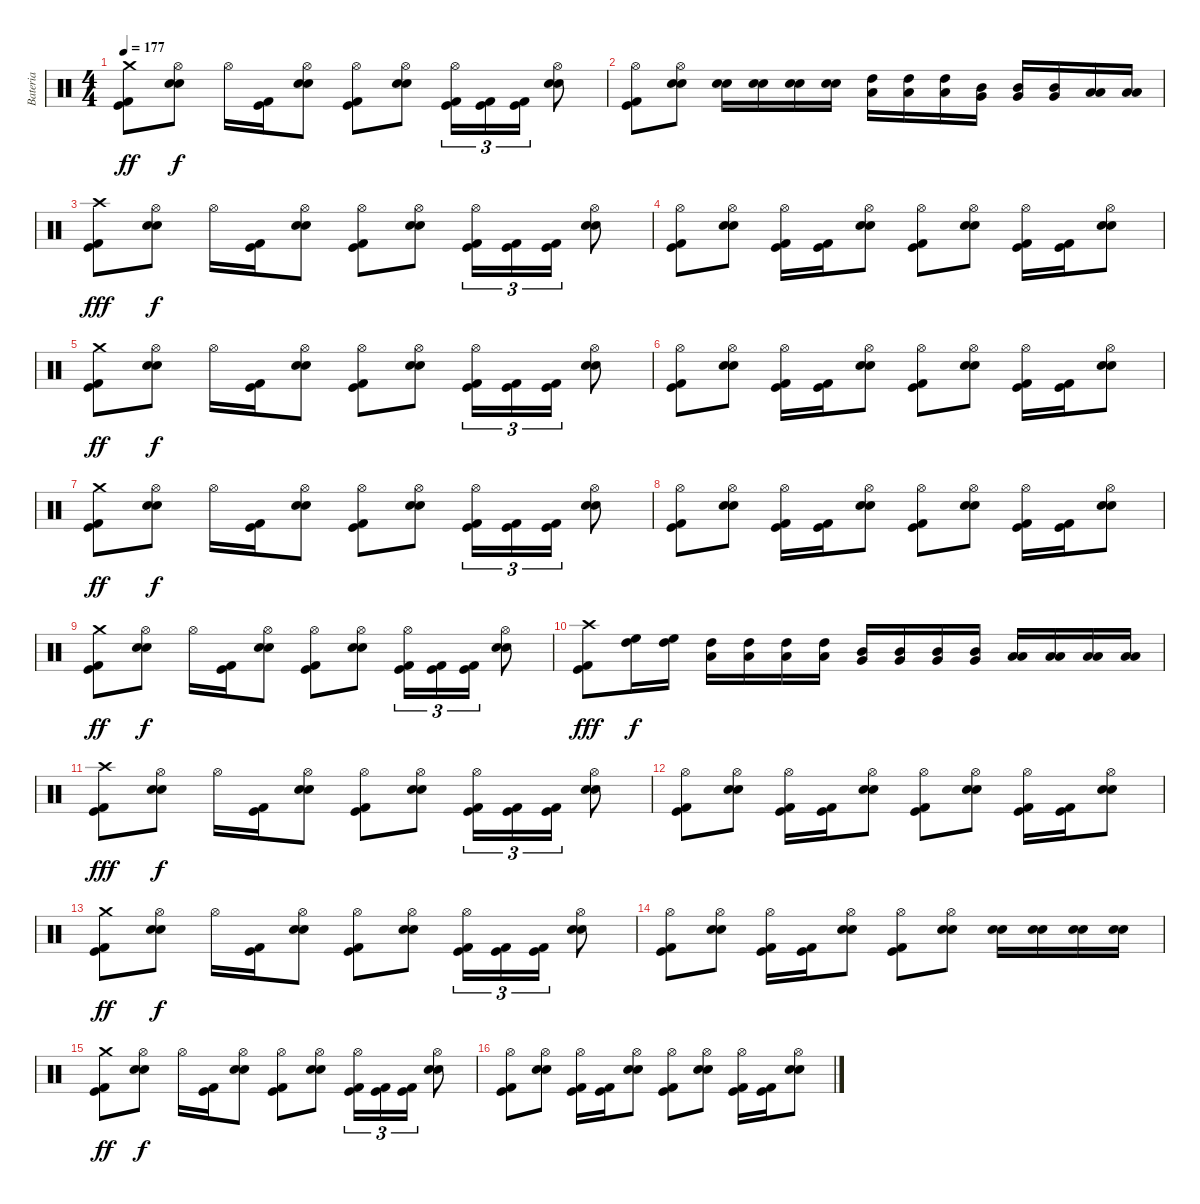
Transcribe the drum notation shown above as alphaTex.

\track ("Bateria" "Bateria") {instrument percussion}
\staff {score}
\articulation defaults
\ts (4 4)
\tempo 177
\clef neutral
\ks c
("Crash medium (hit)" "Kick (hit) 2" "Kick (hit)").8{dy ff} ("Hi-Hat (open)" "Electric Snare (hit)" "Snare (hit) 2").8{dy f} "Hi-Hat (open)".16 ("Kick (hit) 2" "Kick (hit)").16 ("Hi-Hat (open)" "Electric Snare (hit)" "Snare (hit) 2").8 ("Hi-Hat (open)" "Kick (hit) 2" "Kick (hit)").8 ("Hi-Hat (open)" "Electric Snare (hit)" "Snare (hit) 2").8 ("Hi-Hat (open)" "Kick (hit) 2" "Kick (hit)").16{tu (3 2)} ("Kick (hit) 2" "Kick (hit)").16{tu (3 2)} ("Kick (hit) 2" "Kick (hit)").16{tu (3 2)} ("Hi-Hat (open)" "Electric Snare (hit)" "Snare (hit) 2").8 |
("Hi-Hat (open)" "Kick (hit) 2" "Kick (hit)").8 ("Hi-Hat (open)" "Electric Snare (hit)" "Snare (hit) 2").8 ("Electric Snare (hit)" "Snare (hit) 2").16 ("Electric Snare (hit)" "Snare (hit) 2").16 ("Electric Snare (hit)" "Snare (hit) 2").16 ("Electric Snare (hit)" "Snare (hit) 2").16 ("High Tom (hit)" "Low Tom (hit)").16 ("High Tom (hit)" "Low Tom (hit)").16 ("High Tom (hit)" "Low Tom (hit)").16 ("Mid Tom (hit)" "Very Low Tom (hit)").16 ("Mid Tom (hit)" "Very Low Tom (hit)").16 ("Mid Tom (hit)" "Very Low Tom (hit)").16 ("Low Tom (hit)" "Low Floor Tom (hit)").16 ("Low Tom (hit)" "Low Floor Tom (hit)").16 |
("Crash high (hit)" "Kick (hit) 2" "Kick (hit)").8{dy fff} ("Hi-Hat (open)" "Electric Snare (hit)" "Snare (hit) 2").8{dy f} "Hi-Hat (open)".16 ("Kick (hit) 2" "Kick (hit)").16 ("Hi-Hat (open)" "Electric Snare (hit)" "Snare (hit) 2").8 ("Hi-Hat (open)" "Kick (hit) 2" "Kick (hit)").8 ("Hi-Hat (open)" "Electric Snare (hit)" "Snare (hit) 2").8 ("Hi-Hat (open)" "Kick (hit) 2" "Kick (hit)").16{tu (3 2)} ("Kick (hit) 2" "Kick (hit)").16{tu (3 2)} ("Kick (hit) 2" "Kick (hit)").16{tu (3 2)} ("Hi-Hat (open)" "Electric Snare (hit)" "Snare (hit) 2").8 |
("Hi-Hat (open)" "Kick (hit) 2" "Kick (hit)").8 ("Hi-Hat (open)" "Electric Snare (hit)" "Snare (hit) 2").8 ("Hi-Hat (open)" "Kick (hit) 2" "Kick (hit)").16 ("Kick (hit) 2" "Kick (hit)").16 ("Hi-Hat (open)" "Electric Snare (hit)" "Snare (hit) 2").8 ("Hi-Hat (open)" "Kick (hit) 2" "Kick (hit)").8 ("Hi-Hat (open)" "Electric Snare (hit)" "Snare (hit) 2").8 ("Hi-Hat (open)" "Kick (hit) 2" "Kick (hit)").16 ("Kick (hit) 2" "Kick (hit)").16 ("Hi-Hat (open)" "Electric Snare (hit)" "Snare (hit) 2").8 |
("Crash medium (hit)" "Kick (hit) 2" "Kick (hit)").8{dy ff} ("Hi-Hat (open)" "Electric Snare (hit)" "Snare (hit) 2").8{dy f} "Hi-Hat (open)".16 ("Kick (hit) 2" "Kick (hit)").16 ("Hi-Hat (open)" "Electric Snare (hit)" "Snare (hit) 2").8 ("Hi-Hat (open)" "Kick (hit) 2" "Kick (hit)").8 ("Hi-Hat (open)" "Electric Snare (hit)" "Snare (hit) 2").8 ("Hi-Hat (open)" "Kick (hit) 2" "Kick (hit)").16{tu (3 2)} ("Kick (hit) 2" "Kick (hit)").16{tu (3 2)} ("Kick (hit) 2" "Kick (hit)").16{tu (3 2)} ("Hi-Hat (open)" "Electric Snare (hit)" "Snare (hit) 2").8 |
("Hi-Hat (open)" "Kick (hit) 2" "Kick (hit)").8 ("Hi-Hat (open)" "Electric Snare (hit)" "Snare (hit) 2").8 ("Hi-Hat (open)" "Kick (hit) 2" "Kick (hit)").16 ("Kick (hit) 2" "Kick (hit)").16 ("Hi-Hat (open)" "Electric Snare (hit)" "Snare (hit) 2").8 ("Hi-Hat (open)" "Kick (hit) 2" "Kick (hit)").8 ("Hi-Hat (open)" "Electric Snare (hit)" "Snare (hit) 2").8 ("Hi-Hat (open)" "Kick (hit) 2" "Kick (hit)").16 ("Kick (hit) 2" "Kick (hit)").16 ("Hi-Hat (open)" "Electric Snare (hit)" "Snare (hit) 2").8 |
("Crash medium (hit)" "Kick (hit) 2" "Kick (hit)").8{dy ff} ("Hi-Hat (open)" "Electric Snare (hit)" "Snare (hit) 2").8{dy f} "Hi-Hat (open)".16 ("Kick (hit) 2" "Kick (hit)").16 ("Hi-Hat (open)" "Electric Snare (hit)" "Snare (hit) 2").8 ("Hi-Hat (open)" "Kick (hit) 2" "Kick (hit)").8 ("Hi-Hat (open)" "Electric Snare (hit)" "Snare (hit) 2").8 ("Hi-Hat (open)" "Kick (hit) 2" "Kick (hit)").16{tu (3 2)} ("Kick (hit) 2" "Kick (hit)").16{tu (3 2)} ("Kick (hit) 2" "Kick (hit)").16{tu (3 2)} ("Hi-Hat (open)" "Electric Snare (hit)" "Snare (hit) 2").8 |
("Hi-Hat (open)" "Kick (hit) 2" "Kick (hit)").8 ("Hi-Hat (open)" "Electric Snare (hit)" "Snare (hit) 2").8 ("Hi-Hat (open)" "Kick (hit) 2" "Kick (hit)").16 ("Kick (hit) 2" "Kick (hit)").16 ("Hi-Hat (open)" "Electric Snare (hit)" "Snare (hit) 2").8 ("Hi-Hat (open)" "Kick (hit) 2" "Kick (hit)").8 ("Hi-Hat (open)" "Electric Snare (hit)" "Snare (hit) 2").8 ("Hi-Hat (open)" "Kick (hit) 2" "Kick (hit)").16 ("Kick (hit) 2" "Kick (hit)").16 ("Hi-Hat (open)" "Electric Snare (hit)" "Snare (hit) 2").8 |
("Crash medium (hit)" "Kick (hit) 2" "Kick (hit)").8{dy ff} ("Hi-Hat (open)" "Electric Snare (hit)" "Snare (hit) 2").8{dy f} "Hi-Hat (open)".16 ("Kick (hit) 2" "Kick (hit)").16 ("Hi-Hat (open)" "Electric Snare (hit)" "Snare (hit) 2").8 ("Hi-Hat (open)" "Kick (hit) 2" "Kick (hit)").8 ("Hi-Hat (open)" "Electric Snare (hit)" "Snare (hit) 2").8 ("Hi-Hat (open)" "Kick (hit) 2" "Kick (hit)").16{tu (3 2)} ("Kick (hit) 2" "Kick (hit)").16{tu (3 2)} ("Kick (hit) 2" "Kick (hit)").16{tu (3 2)} ("Hi-Hat (open)" "Electric Snare (hit)" "Snare (hit) 2").8 |
("Crash high (hit)" "Kick (hit) 2" "Kick (hit)").8{dy fff} ("High Floor Tom (hit)" "High Tom (hit)").16{dy f} ("High Floor Tom (hit)" "High Tom (hit)").16 ("High Tom (hit)" "Low Tom (hit)").16 ("High Tom (hit)" "Low Tom (hit)").16 ("High Tom (hit)" "Low Tom (hit)").16 ("High Tom (hit)" "Low Tom (hit)").16 ("Mid Tom (hit)" "Very Low Tom (hit)").16 ("Mid Tom (hit)" "Very Low Tom (hit)").16 ("Mid Tom (hit)" "Very Low Tom (hit)").16 ("Mid Tom (hit)" "Very Low Tom (hit)").16 ("Low Tom (hit)" "Low Floor Tom (hit)").16 ("Low Tom (hit)" "Low Floor Tom (hit)").16 ("Low Tom (hit)" "Low Floor Tom (hit)").16 ("Low Tom (hit)" "Low Floor Tom (hit)").16 |
("Crash high (hit)" "Kick (hit) 2" "Kick (hit)").8{dy fff} ("Hi-Hat (open)" "Electric Snare (hit)" "Snare (hit) 2").8{dy f} "Hi-Hat (open)".16 ("Kick (hit) 2" "Kick (hit)").16 ("Hi-Hat (open)" "Electric Snare (hit)" "Snare (hit) 2").8 ("Hi-Hat (open)" "Kick (hit) 2" "Kick (hit)").8 ("Hi-Hat (open)" "Electric Snare (hit)" "Snare (hit) 2").8 ("Hi-Hat (open)" "Kick (hit) 2" "Kick (hit)").16{tu (3 2)} ("Kick (hit) 2" "Kick (hit)").16{tu (3 2)} ("Kick (hit) 2" "Kick (hit)").16{tu (3 2)} ("Hi-Hat (open)" "Electric Snare (hit)" "Snare (hit) 2").8 |
("Hi-Hat (open)" "Kick (hit) 2" "Kick (hit)").8 ("Hi-Hat (open)" "Electric Snare (hit)" "Snare (hit) 2").8 ("Hi-Hat (open)" "Kick (hit) 2" "Kick (hit)").16 ("Kick (hit) 2" "Kick (hit)").16 ("Hi-Hat (open)" "Electric Snare (hit)" "Snare (hit) 2").8 ("Hi-Hat (open)" "Kick (hit) 2" "Kick (hit)").8 ("Hi-Hat (open)" "Electric Snare (hit)" "Snare (hit) 2").8 ("Hi-Hat (open)" "Kick (hit) 2" "Kick (hit)").16 ("Kick (hit) 2" "Kick (hit)").16 ("Hi-Hat (open)" "Electric Snare (hit)" "Snare (hit) 2").8 |
("Crash medium (hit)" "Kick (hit) 2" "Kick (hit)").8{dy ff} ("Hi-Hat (open)" "Electric Snare (hit)" "Snare (hit) 2").8{dy f} "Hi-Hat (open)".16 ("Kick (hit) 2" "Kick (hit)").16 ("Hi-Hat (open)" "Electric Snare (hit)" "Snare (hit) 2").8 ("Hi-Hat (open)" "Kick (hit) 2" "Kick (hit)").8 ("Hi-Hat (open)" "Electric Snare (hit)" "Snare (hit) 2").8 ("Hi-Hat (open)" "Kick (hit) 2" "Kick (hit)").16{tu (3 2)} ("Kick (hit) 2" "Kick (hit)").16{tu (3 2)} ("Kick (hit) 2" "Kick (hit)").16{tu (3 2)} ("Hi-Hat (open)" "Electric Snare (hit)" "Snare (hit) 2").8 |
("Hi-Hat (open)" "Kick (hit) 2" "Kick (hit)").8 ("Hi-Hat (open)" "Electric Snare (hit)" "Snare (hit) 2").8 ("Hi-Hat (open)" "Kick (hit) 2" "Kick (hit)").16 ("Kick (hit) 2" "Kick (hit)").16 ("Hi-Hat (open)" "Electric Snare (hit)" "Snare (hit) 2").8 ("Hi-Hat (open)" "Kick (hit) 2" "Kick (hit)").8 ("Hi-Hat (open)" "Electric Snare (hit)" "Snare (hit) 2").8 ("Electric Snare (hit)" "Snare (hit) 2").16 ("Electric Snare (hit)" "Snare (hit) 2").16 ("Electric Snare (hit)" "Snare (hit) 2").16 ("Electric Snare (hit)" "Snare (hit) 2").16 |
("Crash medium (hit)" "Kick (hit) 2" "Kick (hit)").8{dy ff} ("Hi-Hat (open)" "Electric Snare (hit)" "Snare (hit) 2").8{dy f} "Hi-Hat (open)".16 ("Kick (hit) 2" "Kick (hit)").16 ("Hi-Hat (open)" "Electric Snare (hit)" "Snare (hit) 2").8 ("Hi-Hat (open)" "Kick (hit) 2" "Kick (hit)").8 ("Hi-Hat (open)" "Electric Snare (hit)" "Snare (hit) 2").8 ("Hi-Hat (open)" "Kick (hit) 2" "Kick (hit)").16{tu (3 2)} ("Kick (hit) 2" "Kick (hit)").16{tu (3 2)} ("Kick (hit) 2" "Kick (hit)").16{tu (3 2)} ("Hi-Hat (open)" "Electric Snare (hit)" "Snare (hit) 2").8 |
("Hi-Hat (open)" "Kick (hit) 2" "Kick (hit)").8 ("Hi-Hat (open)" "Electric Snare (hit)" "Snare (hit) 2").8 ("Hi-Hat (open)" "Kick (hit) 2" "Kick (hit)").16 ("Kick (hit) 2" "Kick (hit)").16 ("Hi-Hat (open)" "Electric Snare (hit)" "Snare (hit) 2").8 ("Hi-Hat (open)" "Kick (hit) 2" "Kick (hit)").8 ("Hi-Hat (open)" "Electric Snare (hit)" "Snare (hit) 2").8 ("Hi-Hat (open)" "Kick (hit) 2" "Kick (hit)").16 ("Kick (hit) 2" "Kick (hit)").16 ("Hi-Hat (open)" "Electric Snare (hit)" "Snare (hit) 2").8
